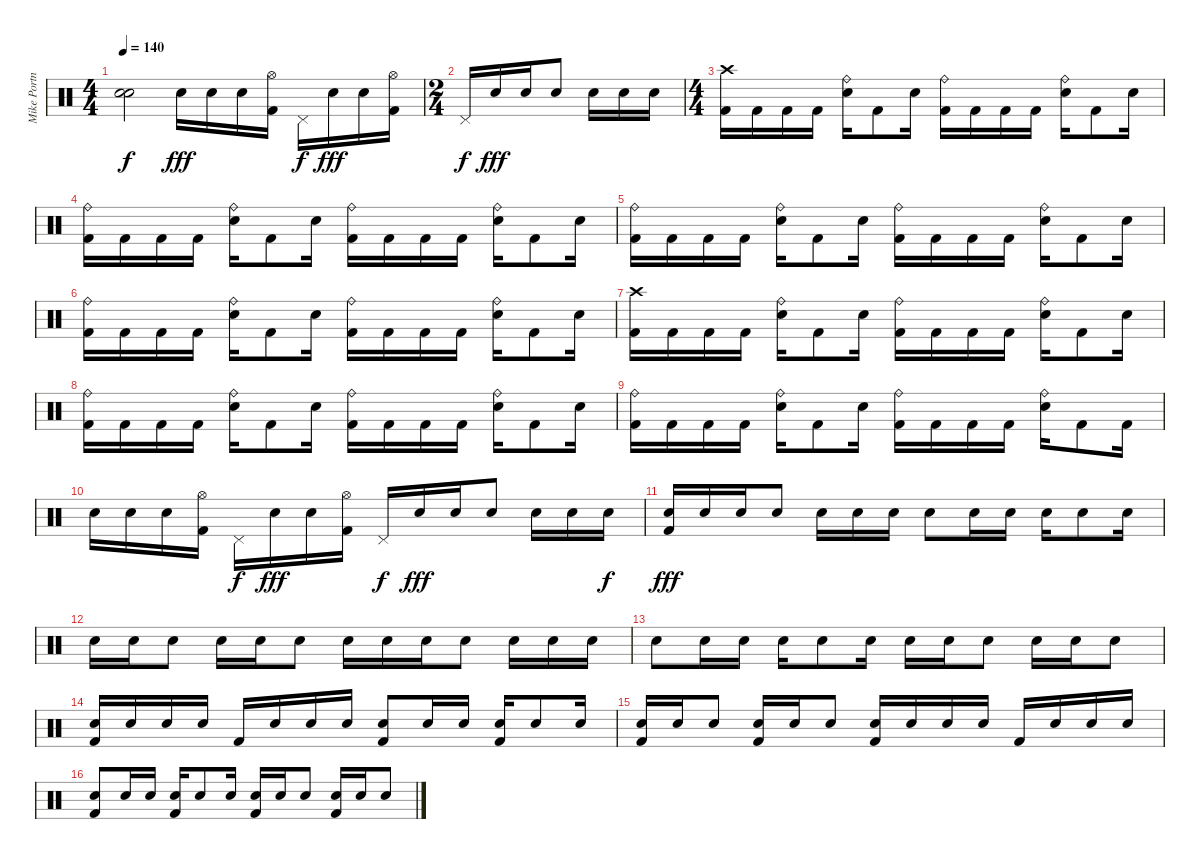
\track ("Mike Portnoy - Drum" "Mike Portn") {instrument percussion}
\staff {score}
\articulation defaults
\ts (4 4)
\tempo 140
\clef neutral
\ks c
("Snare (hit)"{t} "Snare (hit)"{t}).2{dy f} "Snare (hit) 2".16{dy fff} "Snare (hit) 2".16 "Snare (hit) 2".16 ("Hi-Hat (open)" "Kick (hit) 2").16 "Pedal Hi-Hat (hit)".16{dy f} "Snare (hit) 2".16{dy fff} "Snare (hit) 2".16 ("Hi-Hat (open)" "Kick (hit) 2").16 |
\ts (2 4)
"Pedal Hi-Hat (hit)".16{dy f} "Snare (hit) 2".16{dy fff} "Snare (hit) 2".16 "Snare (hit) 2".8 "Snare (hit) 2".16 "Snare (hit) 2".16 "Snare (hit) 2".16 |
\ts (4 4)
("Crash high (hit)" "Kick (hit) 2").16 "Kick (hit) 2".16 "Kick (hit) 2".16 "Kick (hit) 2".16 ("Ride (bell)" "Snare (hit) 2").16 "Kick (hit) 2".8 "Snare (hit) 2".16 ("Ride (bell)" "Kick (hit) 2").16 "Kick (hit) 2".16 "Kick (hit) 2".16 "Kick (hit) 2".16 ("Ride (bell)" "Snare (hit) 2").16 "Kick (hit) 2".8 "Snare (hit) 2".16 |
("Ride (bell)" "Kick (hit) 2").16 "Kick (hit) 2".16 "Kick (hit) 2".16 "Kick (hit) 2".16 ("Ride (bell)" "Snare (hit) 2").16 "Kick (hit) 2".8 "Snare (hit) 2".16 ("Ride (bell)" "Kick (hit) 2").16 "Kick (hit) 2".16 "Kick (hit) 2".16 "Kick (hit) 2".16 ("Ride (bell)" "Snare (hit) 2").16 "Kick (hit) 2".8 "Snare (hit) 2".16 |
("Ride (bell)" "Kick (hit) 2").16 "Kick (hit) 2".16 "Kick (hit) 2".16 "Kick (hit) 2".16 ("Ride (bell)" "Snare (hit) 2").16 "Kick (hit) 2".8 "Snare (hit) 2".16 ("Ride (bell)" "Kick (hit) 2").16 "Kick (hit) 2".16 "Kick (hit) 2".16 "Kick (hit) 2".16 ("Ride (bell)" "Snare (hit) 2").16 "Kick (hit) 2".8 "Snare (hit) 2".16 |
("Ride (bell)" "Kick (hit) 2").16 "Kick (hit) 2".16 "Kick (hit) 2".16 "Kick (hit) 2".16 ("Ride (bell)" "Snare (hit) 2").16 "Kick (hit) 2".8 "Snare (hit) 2".16 ("Ride (bell)" "Kick (hit) 2").16 "Kick (hit) 2".16 "Kick (hit) 2".16 "Kick (hit) 2".16 ("Ride (bell)" "Snare (hit) 2").16 "Kick (hit) 2".8 "Snare (hit) 2".16 |
("Crash high (hit)" "Kick (hit) 2").16 "Kick (hit) 2".16 "Kick (hit) 2".16 "Kick (hit) 2".16 ("Ride (bell)" "Snare (hit) 2").16 "Kick (hit) 2".8 "Snare (hit) 2".16 ("Ride (bell)" "Kick (hit) 2").16 "Kick (hit) 2".16 "Kick (hit) 2".16 "Kick (hit) 2".16 ("Ride (bell)" "Snare (hit) 2").16 "Kick (hit) 2".8 "Snare (hit) 2".16 |
("Ride (bell)" "Kick (hit) 2").16 "Kick (hit) 2".16 "Kick (hit) 2".16 "Kick (hit) 2".16 ("Ride (bell)" "Snare (hit) 2").16 "Kick (hit) 2".8 "Snare (hit) 2".16 ("Ride (bell)" "Kick (hit) 2").16 "Kick (hit) 2".16 "Kick (hit) 2".16 "Kick (hit) 2".16 ("Ride (bell)" "Snare (hit) 2").16 "Kick (hit) 2".8 "Snare (hit) 2".16 |
("Ride (bell)" "Kick (hit) 2").16 "Kick (hit) 2".16 "Kick (hit) 2".16 "Kick (hit) 2".16 ("Ride (bell)" "Snare (hit) 2").16 "Kick (hit) 2".8 "Snare (hit) 2".16 ("Ride (bell)" "Kick (hit) 2").16 "Kick (hit) 2".16 "Kick (hit) 2".16 "Kick (hit) 2".16 ("Ride (bell)" "Snare (hit) 2").16 "Kick (hit) 2".8 "Kick (hit) 2".16 |
"Snare (hit) 2".16 "Snare (hit) 2".16 "Snare (hit) 2".16 ("Hi-Hat (open)" "Kick (hit) 2").16 "Pedal Hi-Hat (hit)".16{dy f} "Snare (hit) 2".16{dy fff} "Snare (hit) 2".16 ("Hi-Hat (open)" "Kick (hit) 2").16 "Pedal Hi-Hat (hit)".16{dy f} "Snare (hit) 2".16{dy fff} "Snare (hit) 2".16 "Snare (hit) 2".8 "Snare (hit) 2".16 "Snare (hit) 2".16 "Snare (hit) 2".16{dy f} |
("Snare (hit) 2" "Kick (hit) 2").16{dy fff} "Snare (hit) 2".16 "Snare (hit) 2".16 "Snare (hit) 2".8 "Snare (hit) 2".16 "Snare (hit) 2".16 "Snare (hit) 2".16 "Snare (hit) 2".8 "Snare (hit) 2".16 "Snare (hit) 2".16 "Snare (hit) 2".16 "Snare (hit) 2".8 "Snare (hit) 2".16 |
"Snare (hit) 2".16 "Snare (hit) 2".16 "Snare (hit) 2".8 "Snare (hit) 2".16 "Snare (hit) 2".16 "Snare (hit) 2".8 "Snare (hit) 2".16 "Snare (hit) 2".16 "Snare (hit) 2".16 "Snare (hit) 2".8 "Snare (hit) 2".16 "Snare (hit) 2".16 "Snare (hit) 2".16 |
"Snare (hit) 2".8 "Snare (hit) 2".16 "Snare (hit) 2".16 "Snare (hit) 2".16 "Snare (hit) 2".8 "Snare (hit) 2".16 "Snare (hit) 2".16 "Snare (hit) 2".16 "Snare (hit) 2".8 "Snare (hit) 2".16 "Snare (hit) 2".16 "Snare (hit) 2".8 |
("Snare (hit) 2" "Kick (hit) 2").16 "Snare (hit) 2".16 "Snare (hit) 2".16 "Snare (hit) 2".16 "Kick (hit) 2".16 "Snare (hit) 2".16 "Snare (hit) 2".16 "Snare (hit) 2".16 ("Snare (hit) 2" "Kick (hit) 2").8 "Snare (hit) 2".16 "Snare (hit) 2".16 ("Snare (hit) 2" "Kick (hit) 2").16 "Snare (hit) 2".8 "Snare (hit) 2".16 |
("Snare (hit) 2" "Kick (hit) 2").16 "Snare (hit) 2".16 "Snare (hit) 2".8 ("Snare (hit) 2" "Kick (hit) 2").16 "Snare (hit) 2".16 "Snare (hit) 2".8 ("Snare (hit) 2" "Kick (hit) 2").16 "Snare (hit) 2".16 "Snare (hit) 2".16 "Snare (hit) 2".16 "Kick (hit) 2".16 "Snare (hit) 2".16 "Snare (hit) 2".16 "Snare (hit) 2".16 |
("Snare (hit) 2" "Kick (hit) 2").8 "Snare (hit) 2".16 "Snare (hit) 2".16 ("Snare (hit) 2" "Kick (hit) 2").16 "Snare (hit) 2".8 "Snare (hit) 2".16 ("Snare (hit) 2" "Kick (hit) 2").16 "Snare (hit) 2".16 "Snare (hit) 2".8 ("Snare (hit) 2" "Kick (hit) 2").16 "Snare (hit) 2".16 "Snare (hit) 2".8
